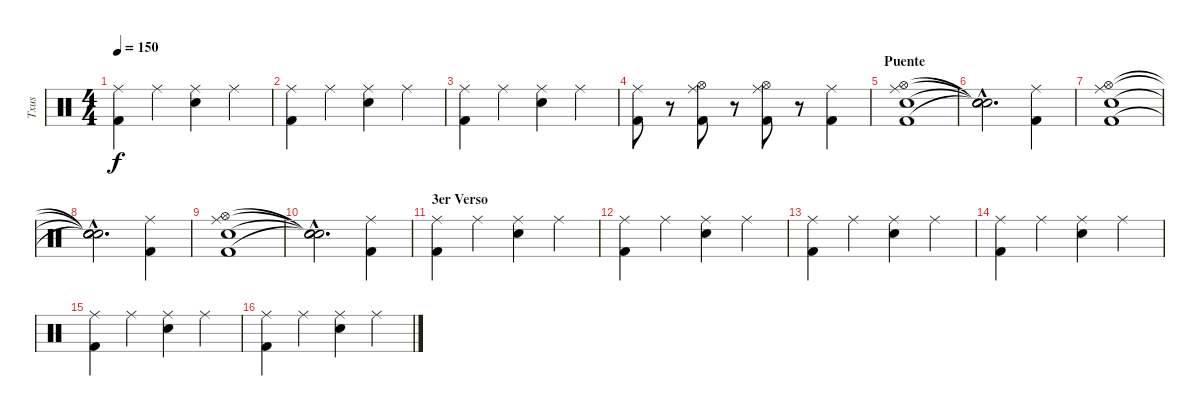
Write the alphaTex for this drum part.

\track ("Txus" "Txus") {instrument percussion}
\staff {score}
\articulation defaults
\ts (4 4)
\tempo 150
\clef neutral
\ks c
("Ride (middle)" "Kick (hit) 2").4{dy f} "Ride (middle)".4 ("Snare (hit) 2" "Ride (middle)").4 "Ride (middle)".4 |
("Ride (middle)" "Kick (hit) 2").4 "Ride (middle)".4 ("Snare (hit) 2" "Ride (middle)").4 "Ride (middle)".4 |
("Ride (middle)" "Kick (hit) 2").4 "Ride (middle)".4 ("Snare (hit) 2" "Ride (middle)").4 "Ride (middle)".4 |
("Ride (middle)" "Kick (hit) 2").8 r.8 ("Ride (middle)" "Kick (hit) 2" "Hi-Hat (open)").8 r.8 ("Ride (middle)" "Kick (hit) 2" "Hi-Hat (open)").8 r.8 ("Ride (middle)" "Kick (hit) 2").4 |
\section ("" "Puente")
("Ride (middle)" "Kick (hit) 2" "Hi-Hat (open)" "Snare (hit) 2").1 |
("Snare (hit)"{hac t} "Snare (hit)"{hac t} "Snare (hit)"{hac t} "Snare (hit)"{hac t}).2{d} ("Ride (middle)" "Kick (hit) 2").4 |
("Ride (middle)" "Kick (hit) 2" "Hi-Hat (open)" "Snare (hit) 2").1 |
("Snare (hit)"{hac t} "Snare (hit)"{hac t} "Snare (hit)"{hac t} "Snare (hit)"{hac t}).2{d} ("Ride (middle)" "Kick (hit) 2").4 |
("Ride (middle)" "Kick (hit) 2" "Hi-Hat (open)" "Snare (hit) 2").1 |
("Snare (hit)"{hac t} "Snare (hit)"{hac t} "Snare (hit)"{hac t} "Snare (hit)"{hac t}).2{d} ("Ride (middle)" "Kick (hit) 2").4 |
\section ("" "3er Verso")
("Ride (middle)" "Kick (hit) 2").4 "Ride (middle)".4 ("Snare (hit) 2" "Ride (middle)").4 "Ride (middle)".4 |
("Ride (middle)" "Kick (hit) 2").4 "Ride (middle)".4 ("Snare (hit) 2" "Ride (middle)").4 "Ride (middle)".4 |
("Ride (middle)" "Kick (hit) 2").4 "Ride (middle)".4 ("Snare (hit) 2" "Ride (middle)").4 "Ride (middle)".4 |
("Ride (middle)" "Kick (hit) 2").4 "Ride (middle)".4 ("Snare (hit) 2" "Ride (middle)").4 "Ride (middle)".4 |
("Ride (middle)" "Kick (hit) 2").4 "Ride (middle)".4 ("Snare (hit) 2" "Ride (middle)").4 "Ride (middle)".4 |
("Ride (middle)" "Kick (hit) 2").4 "Ride (middle)".4 ("Snare (hit) 2" "Ride (middle)").4 "Ride (middle)".4
